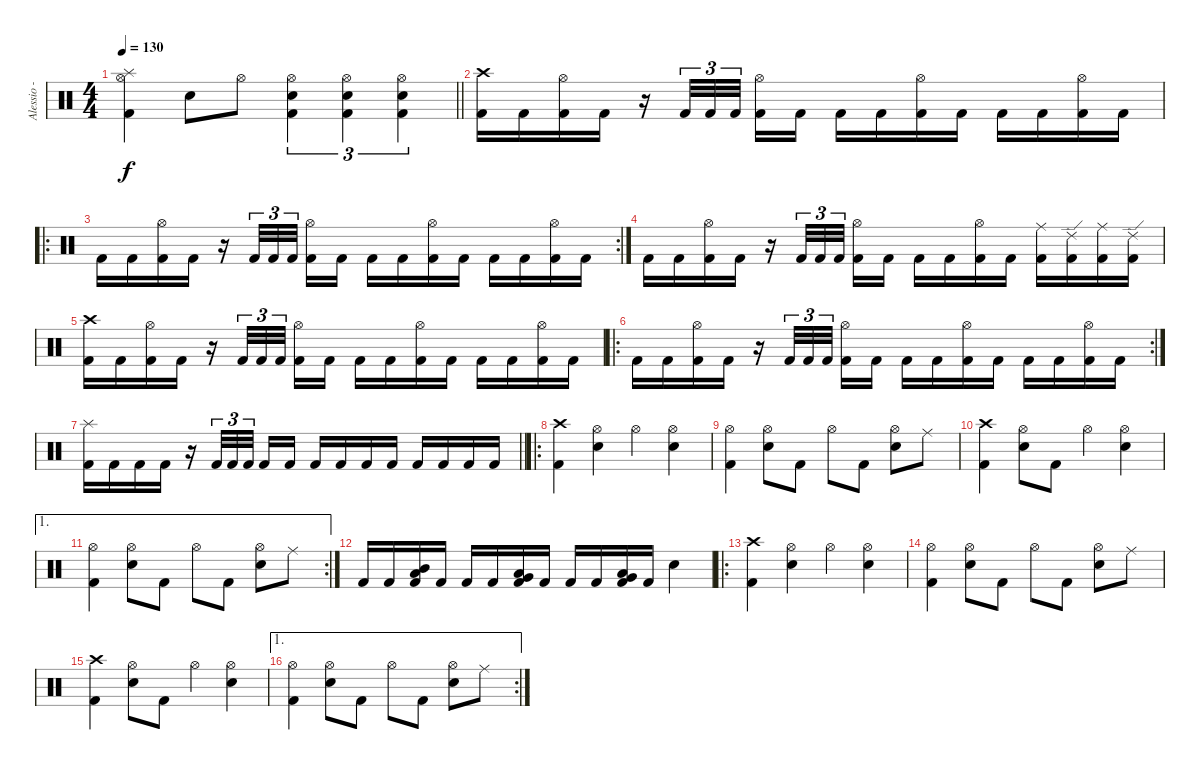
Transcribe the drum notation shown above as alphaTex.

\track ("Alessio - Drums" "Alessio - ") {instrument percussion}
\staff {score}
\articulation defaults
\ts (4 4)
\tempo 130
\clef neutral
\barLineRight lightlight
\ks c
("Splash (hit)" "Hi-Hat (open)" "Kick (hit) 2").4{dy f} "Electric Snare (hit)".8 "Hi-Hat (open)".8 ("Hi-Hat (open)" "Electric Snare (hit)" "Kick (hit) 2").4{tu (3 2)} ("Hi-Hat (open)" "Electric Snare (hit)" "Kick (hit) 2").4{tu (3 2)} ("Hi-Hat (open)" "Electric Snare (hit)" "Kick (hit) 2").4{tu (3 2)} |
\section ("" "")
("Crash high (hit)" "Kick (hit) 2").16 "Kick (hit) 2".16 ("Hi-Hat (open)" "Kick (hit) 2").16 "Kick (hit) 2".16 r.16 "Kick (hit) 2".32{tu (3 2)} "Kick (hit) 2".32{tu (3 2)} "Kick (hit) 2".32{tu (3 2) beam splitsecondary} ("Hi-Hat (open)" "Kick (hit) 2").16 "Kick (hit) 2".16 "Kick (hit) 2".16 "Kick (hit) 2".16 ("Hi-Hat (open)" "Kick (hit) 2").16 "Kick (hit) 2".16 "Kick (hit) 2".16 "Kick (hit) 2".16 ("Hi-Hat (open)" "Kick (hit) 2").16 "Kick (hit) 2".16 |
\ro
\rc 2 "Kick (hit) 2".16 "Kick (hit) 2".16
("Hi-Hat (open)" "Kick (hit) 2").16 "Kick (hit) 2".16 r.16 "Kick (hit) 2".32{tu (3 2)} "Kick (hit) 2".32{tu (3 2)} "Kick (hit) 2".32{tu (3 2) beam splitsecondary} ("Hi-Hat (open)" "Kick (hit) 2").16 "Kick (hit) 2".16 "Kick (hit) 2".16 "Kick (hit) 2".16 ("Hi-Hat (open)" "Kick (hit) 2").16 "Kick (hit) 2".16 "Kick (hit) 2".16 "Kick (hit) 2".16 ("Hi-Hat (open)" "Kick (hit) 2").16 "Kick (hit) 2".16 |
"Kick (hit) 2".16 "Kick (hit) 2".16 ("Hi-Hat (open)" "Kick (hit) 2").16 "Kick (hit) 2".16 r.16 "Kick (hit) 2".32{tu (3 2)} "Kick (hit) 2".32{tu (3 2)} "Kick (hit) 2".32{tu (3 2) beam splitsecondary} ("Hi-Hat (open)" "Kick (hit) 2").16 "Kick (hit) 2".16 "Kick (hit) 2".16 "Kick (hit) 2".16 ("Hi-Hat (open)" "Kick (hit) 2").16 "Kick (hit) 2".16 ("Ride (middle)" "Kick (hit) 2").16 ("Ride (edge) 2" "Kick (hit) 2").16 ("Ride (middle)" "Kick (hit) 2").16 ("Ride (edge) 2" "Kick (hit) 2").16 |
("Crash high (hit)" "Kick (hit) 2").16 "Kick (hit) 2".16 ("Hi-Hat (open)" "Kick (hit) 2").16 "Kick (hit) 2".16 r.16 "Kick (hit) 2".32{tu (3 2)} "Kick (hit) 2".32{tu (3 2)} "Kick (hit) 2".32{tu (3 2) beam splitsecondary} ("Hi-Hat (open)" "Kick (hit) 2").16 "Kick (hit) 2".16 "Kick (hit) 2".16 "Kick (hit) 2".16 ("Hi-Hat (open)" "Kick (hit) 2").16 "Kick (hit) 2".16 "Kick (hit) 2".16 "Kick (hit) 2".16 ("Hi-Hat (open)" "Kick (hit) 2").16 "Kick (hit) 2".16 |
\ro
\rc 2 "Kick (hit) 2".16 "Kick (hit) 2".16
("Hi-Hat (open)" "Kick (hit) 2").16 "Kick (hit) 2".16 r.16 "Kick (hit) 2".32{tu (3 2)} "Kick (hit) 2".32{tu (3 2)} "Kick (hit) 2".32{tu (3 2) beam splitsecondary} ("Hi-Hat (open)" "Kick (hit) 2").16 "Kick (hit) 2".16 "Kick (hit) 2".16 "Kick (hit) 2".16 ("Hi-Hat (open)" "Kick (hit) 2").16 "Kick (hit) 2".16 "Kick (hit) 2".16 "Kick (hit) 2".16 ("Hi-Hat (open)" "Kick (hit) 2").16 "Kick (hit) 2".16 |
\barLineRight lightlight
("Splash (hit)" "Kick (hit) 2").16 "Kick (hit) 2".16 "Kick (hit) 2".16 "Kick (hit) 2".16 r.16 "Kick (hit) 2".32{tu (3 2)} "Kick (hit) 2".32{tu (3 2)} "Kick (hit) 2".32{tu (3 2) beam splitsecondary} "Kick (hit) 2".16 "Kick (hit) 2".16 "Kick (hit) 2".16 "Kick (hit) 2".16 "Kick (hit) 2".16 "Kick (hit) 2".16 "Kick (hit) 2".16 "Kick (hit) 2".16 "Kick (hit) 2".16 "Kick (hit) 2".16 |
\ro
\section ("" "")
("Crash high (hit)" "Kick (hit) 2").4 ("Hi-Hat (open)" "Electric Snare (hit)").4 "Hi-Hat (open)".4 ("Hi-Hat (open)" "Electric Snare (hit)").4 |
("Hi-Hat (open)" "Kick (hit) 2").4 ("Hi-Hat (open)" "Electric Snare (hit)").8 "Kick (hit) 2".8 "Hi-Hat (open)".8 "Kick (hit) 2".8 ("Hi-Hat (open)" "Electric Snare (hit)").8 "Ride (middle)".8 |
("Crash high (hit)" "Kick (hit) 2").4 ("Hi-Hat (open)" "Electric Snare (hit)").8 "Kick (hit) 2".8 "Hi-Hat (open)".4 ("Hi-Hat (open)" "Electric Snare (hit)").4 |
\ae 1
\rc 2
("Hi-Hat (open)" "Kick (hit) 2").4 ("Hi-Hat (open)" "Electric Snare (hit)").8 "Kick (hit) 2".8 "Hi-Hat (open)".8 "Kick (hit) 2".8 ("Hi-Hat (open)" "Electric Snare (hit)").8 "Ride (middle)".8 |
"Kick (hit) 2".16 "Kick (hit) 2".16 ("Low Tom (hit)" "Mid Tom (hit)" "Kick (hit) 2").16 "Kick (hit) 2".16 "Kick (hit) 2".16 "Kick (hit) 2".16 ("Very Low Tom (hit)" "Low Tom (hit)" "Kick (hit) 2").16 "Kick (hit) 2".16 "Kick (hit) 2".16 "Kick (hit) 2".16 ("Low Floor Tom (hit)" "Very Low Tom (hit)" "Kick (hit) 2").16 "Kick (hit) 2".16 "Electric Snare (hit)".4 |
\ro
("Crash high (hit)" "Kick (hit) 2").4 ("Hi-Hat (open)" "Electric Snare (hit)").4 "Hi-Hat (open)".4 ("Hi-Hat (open)" "Electric Snare (hit)").4 |
("Hi-Hat (open)" "Kick (hit) 2").4 ("Hi-Hat (open)" "Electric Snare (hit)").8 "Kick (hit) 2".8 "Hi-Hat (open)".8 "Kick (hit) 2".8 ("Hi-Hat (open)" "Electric Snare (hit)").8 "Ride (middle)".8 |
("Crash high (hit)" "Kick (hit) 2").4 ("Hi-Hat (open)" "Electric Snare (hit)").8 "Kick (hit) 2".8 "Hi-Hat (open)".4 ("Hi-Hat (open)" "Electric Snare (hit)").4 |
\ae 1
\rc 2
("Hi-Hat (open)" "Kick (hit) 2").4 ("Hi-Hat (open)" "Electric Snare (hit)").8 "Kick (hit) 2".8 "Hi-Hat (open)".8 "Kick (hit) 2".8 ("Hi-Hat (open)" "Electric Snare (hit)").8 "Ride (middle)".8
